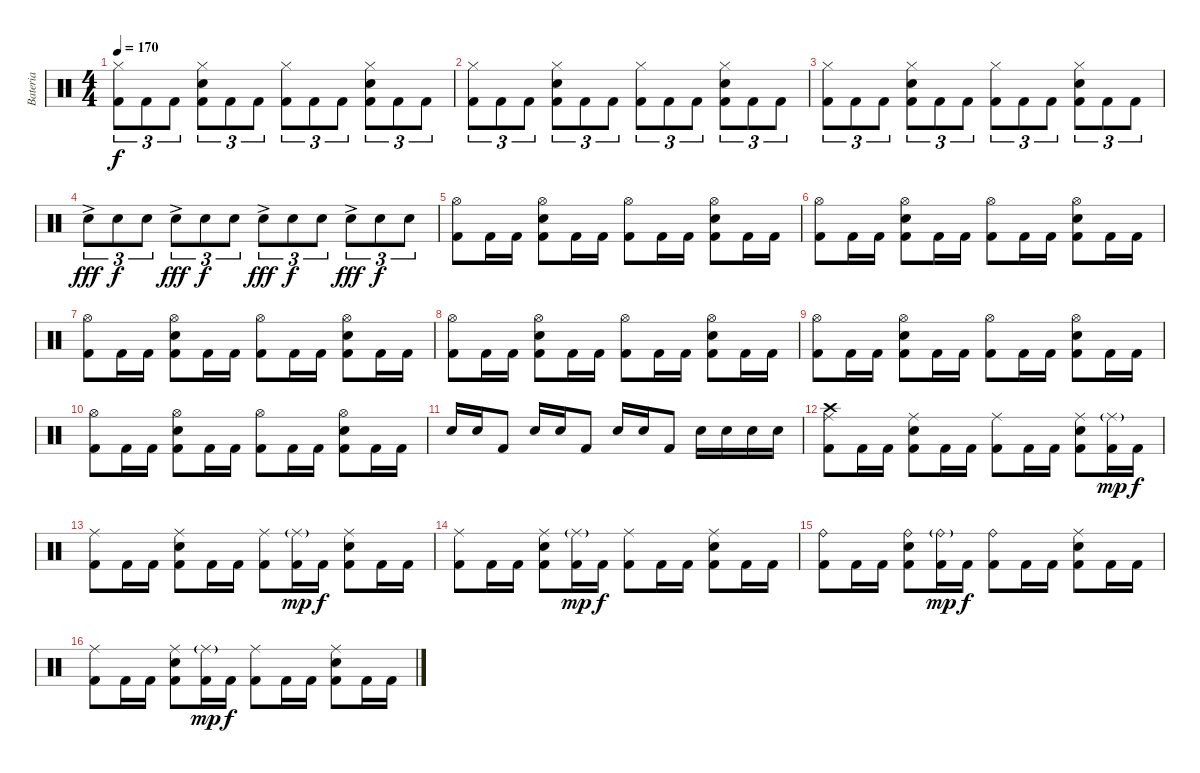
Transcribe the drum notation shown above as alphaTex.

\track ("Bateria" "Bateria") {instrument percussion}
\staff {score}
\articulation defaults
\ts (4 4)
\tempo 170
\clef neutral
\ks c
("Hi-Hat (closed)" "Kick (hit) 2").8{tu (3 2) dy f} "Kick (hit) 2".8{tu (3 2)} "Kick (hit) 2".8{tu (3 2)} ("Hi-Hat (closed)" "Snare (hit) 2" "Kick (hit) 2").8{tu (3 2)} "Kick (hit) 2".8{tu (3 2)} "Kick (hit) 2".8{tu (3 2)} ("Hi-Hat (closed)" "Kick (hit) 2").8{tu (3 2)} "Kick (hit) 2".8{tu (3 2)} "Kick (hit) 2".8{tu (3 2)} ("Hi-Hat (closed)" "Snare (hit) 2" "Kick (hit) 2").8{tu (3 2)} "Kick (hit) 2".8{tu (3 2)} "Kick (hit) 2".8{tu (3 2)} |
("Hi-Hat (closed)" "Kick (hit) 2").8{tu (3 2)} "Kick (hit) 2".8{tu (3 2)} "Kick (hit) 2".8{tu (3 2)} ("Hi-Hat (closed)" "Snare (hit) 2" "Kick (hit) 2").8{tu (3 2)} "Kick (hit) 2".8{tu (3 2)} "Kick (hit) 2".8{tu (3 2)} ("Hi-Hat (closed)" "Kick (hit) 2").8{tu (3 2)} "Kick (hit) 2".8{tu (3 2)} "Kick (hit) 2".8{tu (3 2)} ("Hi-Hat (closed)" "Snare (hit) 2" "Kick (hit) 2").8{tu (3 2)} "Kick (hit) 2".8{tu (3 2)} "Kick (hit) 2".8{tu (3 2)} |
("Hi-Hat (closed)" "Kick (hit) 2").8{tu (3 2)} "Kick (hit) 2".8{tu (3 2)} "Kick (hit) 2".8{tu (3 2)} ("Hi-Hat (closed)" "Snare (hit) 2" "Kick (hit) 2").8{tu (3 2)} "Kick (hit) 2".8{tu (3 2)} "Kick (hit) 2".8{tu (3 2)} ("Hi-Hat (closed)" "Kick (hit) 2").8{tu (3 2)} "Kick (hit) 2".8{tu (3 2)} "Kick (hit) 2".8{tu (3 2)} ("Hi-Hat (closed)" "Snare (hit) 2" "Kick (hit) 2").8{tu (3 2)} "Kick (hit) 2".8{tu (3 2)} "Kick (hit) 2".8{tu (3 2)} |
"Snare (hit) 2"{ac}.8{tu (3 2) dy fff} "Snare (hit) 2".8{tu (3 2) dy f} "Snare (hit) 2".8{tu (3 2)} "Snare (hit) 2"{ac}.8{tu (3 2) dy fff} "Snare (hit) 2".8{tu (3 2) dy f} "Snare (hit) 2".8{tu (3 2)} "Snare (hit) 2"{ac}.8{tu (3 2) dy fff} "Snare (hit) 2".8{tu (3 2) dy f} "Snare (hit) 2".8{tu (3 2)} "Snare (hit) 2"{ac}.8{tu (3 2) dy fff} "Snare (hit) 2".8{tu (3 2) dy f} "Snare (hit) 2".8{tu (3 2)} |
("Hi-Hat (open)" "Kick (hit) 2").8 "Kick (hit) 2".16 "Kick (hit) 2".16 ("Hi-Hat (open)" "Snare (hit) 2" "Kick (hit) 2").8 "Kick (hit) 2".16 "Kick (hit) 2".16 ("Hi-Hat (open)" "Kick (hit) 2").8 "Kick (hit) 2".16 "Kick (hit) 2".16 ("Hi-Hat (open)" "Snare (hit) 2" "Kick (hit) 2").8 "Kick (hit) 2".16 "Kick (hit) 2".16 |
("Hi-Hat (open)" "Kick (hit) 2").8 "Kick (hit) 2".16 "Kick (hit) 2".16 ("Hi-Hat (open)" "Snare (hit) 2" "Kick (hit) 2").8 "Kick (hit) 2".16 "Kick (hit) 2".16 ("Hi-Hat (open)" "Kick (hit) 2").8 "Kick (hit) 2".16 "Kick (hit) 2".16 ("Hi-Hat (open)" "Snare (hit) 2" "Kick (hit) 2").8 "Kick (hit) 2".16 "Kick (hit) 2".16 |
("Hi-Hat (open)" "Kick (hit) 2").8 "Kick (hit) 2".16 "Kick (hit) 2".16 ("Hi-Hat (open)" "Snare (hit) 2" "Kick (hit) 2").8 "Kick (hit) 2".16 "Kick (hit) 2".16 ("Hi-Hat (open)" "Kick (hit) 2").8 "Kick (hit) 2".16 "Kick (hit) 2".16 ("Hi-Hat (open)" "Snare (hit) 2" "Kick (hit) 2").8 "Kick (hit) 2".16 "Kick (hit) 2".16 |
("Hi-Hat (open)" "Kick (hit) 2").8 "Kick (hit) 2".16 "Kick (hit) 2".16 ("Hi-Hat (open)" "Snare (hit) 2" "Kick (hit) 2").8 "Kick (hit) 2".16 "Kick (hit) 2".16 ("Hi-Hat (open)" "Kick (hit) 2").8 "Kick (hit) 2".16 "Kick (hit) 2".16 ("Hi-Hat (open)" "Snare (hit) 2" "Kick (hit) 2").8 "Kick (hit) 2".16 "Kick (hit) 2".16 |
("Hi-Hat (open)" "Kick (hit) 2").8 "Kick (hit) 2".16 "Kick (hit) 2".16 ("Hi-Hat (open)" "Snare (hit) 2" "Kick (hit) 2").8 "Kick (hit) 2".16 "Kick (hit) 2".16 ("Hi-Hat (open)" "Kick (hit) 2").8 "Kick (hit) 2".16 "Kick (hit) 2".16 ("Hi-Hat (open)" "Snare (hit) 2" "Kick (hit) 2").8 "Kick (hit) 2".16 "Kick (hit) 2".16 |
("Hi-Hat (open)" "Kick (hit) 2").8 "Kick (hit) 2".16 "Kick (hit) 2".16 ("Hi-Hat (open)" "Snare (hit) 2" "Kick (hit) 2").8 "Kick (hit) 2".16 "Kick (hit) 2".16 ("Hi-Hat (open)" "Kick (hit) 2").8 "Kick (hit) 2".16 "Kick (hit) 2".16 ("Hi-Hat (open)" "Snare (hit) 2" "Kick (hit) 2").8 "Kick (hit) 2".16 "Kick (hit) 2".16 |
"Snare (hit) 2".16 "Snare (hit) 2".16 "Kick (hit) 2".8 "Snare (hit) 2".16 "Snare (hit) 2".16 "Kick (hit) 2".8 "Snare (hit) 2".16 "Snare (hit) 2".16 "Kick (hit) 2".8 "Snare (hit) 2".16 "Snare (hit) 2".16 "Snare (hit) 2".16 "Snare (hit) 2".16 |
("Ride (middle)" "Kick (hit) 2" "Crash high (hit)").8 "Kick (hit) 2".16 "Kick (hit) 2".16 ("Ride (middle)" "Snare (hit) 2" "Kick (hit) 2").8 "Kick (hit) 2".16 "Kick (hit) 2".16 ("Ride (middle)" "Kick (hit) 2").8 "Kick (hit) 2".16 "Kick (hit) 2".16 ("Ride (middle)" "Snare (hit) 2" "Kick (hit) 2").8 ("Ride (middle)"{g} "Kick (hit) 2").16{dy mp} "Kick (hit) 2".16{dy f} |
("Ride (middle)" "Kick (hit) 2").8 "Kick (hit) 2".16 "Kick (hit) 2".16 ("Ride (middle)" "Snare (hit) 2" "Kick (hit) 2").8 "Kick (hit) 2".16 "Kick (hit) 2".16 ("Ride (middle)" "Kick (hit) 2").8 ("Ride (middle)"{g} "Kick (hit) 2").16{dy mp} "Kick (hit) 2".16{dy f} ("Ride (middle)" "Snare (hit) 2" "Kick (hit) 2").8 "Kick (hit) 2".16 "Kick (hit) 2".16 |
("Ride (middle)" "Kick (hit) 2").8 "Kick (hit) 2".16 "Kick (hit) 2".16 ("Ride (middle)" "Snare (hit) 2" "Kick (hit) 2").8 ("Ride (middle)"{g} "Kick (hit) 2").16{dy mp} "Kick (hit) 2".16{dy f} ("Ride (middle)" "Kick (hit) 2").8 "Kick (hit) 2".16 "Kick (hit) 2".16 ("Ride (middle)" "Snare (hit) 2" "Kick (hit) 2").8 "Kick (hit) 2".16 "Kick (hit) 2".16 |
("Ride (bell)" "Kick (hit) 2").8 "Kick (hit) 2".16 "Kick (hit) 2".16 ("Ride (bell)" "Snare (hit) 2" "Kick (hit) 2").8 ("Ride (bell)"{g} "Kick (hit) 2").16{dy mp} "Kick (hit) 2".16{dy f} ("Ride (bell)" "Kick (hit) 2").8 "Kick (hit) 2".16 "Kick (hit) 2".16 ("Ride (middle)" "Snare (hit) 2" "Kick (hit) 2").8 "Kick (hit) 2".16 "Kick (hit) 2".16 |
("Ride (middle)" "Kick (hit) 2").8 "Kick (hit) 2".16 "Kick (hit) 2".16 ("Ride (middle)" "Snare (hit) 2" "Kick (hit) 2").8 ("Ride (middle)"{g} "Kick (hit) 2").16{dy mp} "Kick (hit) 2".16{dy f} ("Ride (middle)" "Kick (hit) 2").8 "Kick (hit) 2".16 "Kick (hit) 2".16 ("Ride (middle)" "Snare (hit) 2" "Kick (hit) 2").8 "Kick (hit) 2".16 "Kick (hit) 2".16
